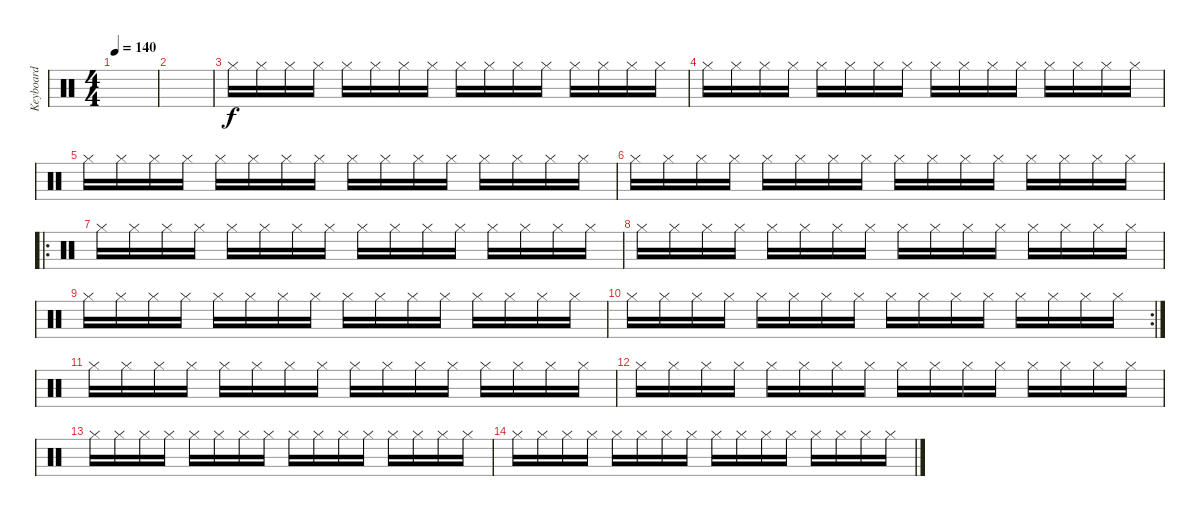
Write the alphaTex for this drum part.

\track ("Keyboard" "Keyboard") {instrument percussion}
\staff {score}
\articulation defaults
\ts (4 4)
\tempo 140
\clef neutral
\ks c
|
|
"Hi-Hat (closed)".16 "Hi-Hat (closed)".16 "Hi-Hat (closed)".16 "Hi-Hat (closed)".16 "Hi-Hat (closed)".16 "Hi-Hat (closed)".16 "Hi-Hat (closed)".16 "Hi-Hat (closed)".16 "Hi-Hat (closed)".16 "Hi-Hat (closed)".16 "Hi-Hat (closed)".16 "Hi-Hat (closed)".16 "Hi-Hat (closed)".16 "Hi-Hat (closed)".16 "Hi-Hat (closed)".16 "Hi-Hat (closed)".16 |
"Hi-Hat (closed)".16 "Hi-Hat (closed)".16 "Hi-Hat (closed)".16 "Hi-Hat (closed)".16 "Hi-Hat (closed)".16 "Hi-Hat (closed)".16 "Hi-Hat (closed)".16 "Hi-Hat (closed)".16 "Hi-Hat (closed)".16 "Hi-Hat (closed)".16 "Hi-Hat (closed)".16 "Hi-Hat (closed)".16 "Hi-Hat (closed)".16 "Hi-Hat (closed)".16 "Hi-Hat (closed)".16 "Hi-Hat (closed)".16 |
"Hi-Hat (closed)".16 "Hi-Hat (closed)".16 "Hi-Hat (closed)".16 "Hi-Hat (closed)".16 "Hi-Hat (closed)".16 "Hi-Hat (closed)".16 "Hi-Hat (closed)".16 "Hi-Hat (closed)".16 "Hi-Hat (closed)".16 "Hi-Hat (closed)".16 "Hi-Hat (closed)".16 "Hi-Hat (closed)".16 "Hi-Hat (closed)".16 "Hi-Hat (closed)".16 "Hi-Hat (closed)".16 "Hi-Hat (closed)".16 |
"Hi-Hat (closed)".16 "Hi-Hat (closed)".16 "Hi-Hat (closed)".16 "Hi-Hat (closed)".16 "Hi-Hat (closed)".16 "Hi-Hat (closed)".16 "Hi-Hat (closed)".16 "Hi-Hat (closed)".16 "Hi-Hat (closed)".16 "Hi-Hat (closed)".16 "Hi-Hat (closed)".16 "Hi-Hat (closed)".16 "Hi-Hat (closed)".16 "Hi-Hat (closed)".16 "Hi-Hat (closed)".16 "Hi-Hat (closed)".16 |
\ro "Hi-Hat (closed)".16 "Hi-Hat (closed)".16 "Hi-Hat (closed)".16 "Hi-Hat (closed)".16 "Hi-Hat (closed)".16 "Hi-Hat (closed)".16 "Hi-Hat (closed)".16 "Hi-Hat (closed)".16 "Hi-Hat (closed)".16 "Hi-Hat (closed)".16 "Hi-Hat (closed)".16 "Hi-Hat (closed)".16 "Hi-Hat (closed)".16 "Hi-Hat (closed)".16 "Hi-Hat (closed)".16 "Hi-Hat (closed)".16
|
"Hi-Hat (closed)".16 "Hi-Hat (closed)".16 "Hi-Hat (closed)".16 "Hi-Hat (closed)".16 "Hi-Hat (closed)".16 "Hi-Hat (closed)".16 "Hi-Hat (closed)".16 "Hi-Hat (closed)".16 "Hi-Hat (closed)".16 "Hi-Hat (closed)".16 "Hi-Hat (closed)".16 "Hi-Hat (closed)".16 "Hi-Hat (closed)".16 "Hi-Hat (closed)".16 "Hi-Hat (closed)".16 "Hi-Hat (closed)".16 |
"Hi-Hat (closed)".16 "Hi-Hat (closed)".16 "Hi-Hat (closed)".16 "Hi-Hat (closed)".16 "Hi-Hat (closed)".16 "Hi-Hat (closed)".16 "Hi-Hat (closed)".16 "Hi-Hat (closed)".16 "Hi-Hat (closed)".16 "Hi-Hat (closed)".16 "Hi-Hat (closed)".16 "Hi-Hat (closed)".16 "Hi-Hat (closed)".16 "Hi-Hat (closed)".16 "Hi-Hat (closed)".16 "Hi-Hat (closed)".16 |
\rc 2 "Hi-Hat (closed)".16 "Hi-Hat (closed)".16 "Hi-Hat (closed)".16 "Hi-Hat (closed)".16 "Hi-Hat (closed)".16 "Hi-Hat (closed)".16 "Hi-Hat (closed)".16 "Hi-Hat (closed)".16 "Hi-Hat (closed)".16 "Hi-Hat (closed)".16 "Hi-Hat (closed)".16 "Hi-Hat (closed)".16 "Hi-Hat (closed)".16 "Hi-Hat (closed)".16 "Hi-Hat (closed)".16 "Hi-Hat (closed)".16
|
"Hi-Hat (closed)".16 "Hi-Hat (closed)".16 "Hi-Hat (closed)".16 "Hi-Hat (closed)".16 "Hi-Hat (closed)".16 "Hi-Hat (closed)".16 "Hi-Hat (closed)".16 "Hi-Hat (closed)".16 "Hi-Hat (closed)".16 "Hi-Hat (closed)".16 "Hi-Hat (closed)".16 "Hi-Hat (closed)".16 "Hi-Hat (closed)".16 "Hi-Hat (closed)".16 "Hi-Hat (closed)".16 "Hi-Hat (closed)".16 |
"Hi-Hat (closed)".16 "Hi-Hat (closed)".16 "Hi-Hat (closed)".16 "Hi-Hat (closed)".16 "Hi-Hat (closed)".16 "Hi-Hat (closed)".16 "Hi-Hat (closed)".16 "Hi-Hat (closed)".16 "Hi-Hat (closed)".16 "Hi-Hat (closed)".16 "Hi-Hat (closed)".16 "Hi-Hat (closed)".16 "Hi-Hat (closed)".16 "Hi-Hat (closed)".16 "Hi-Hat (closed)".16 "Hi-Hat (closed)".16 |
"Hi-Hat (closed)".16 "Hi-Hat (closed)".16 "Hi-Hat (closed)".16 "Hi-Hat (closed)".16 "Hi-Hat (closed)".16 "Hi-Hat (closed)".16 "Hi-Hat (closed)".16 "Hi-Hat (closed)".16 "Hi-Hat (closed)".16 "Hi-Hat (closed)".16 "Hi-Hat (closed)".16 "Hi-Hat (closed)".16 "Hi-Hat (closed)".16 "Hi-Hat (closed)".16 "Hi-Hat (closed)".16 "Hi-Hat (closed)".16 |
"Hi-Hat (closed)".16 "Hi-Hat (closed)".16 "Hi-Hat (closed)".16 "Hi-Hat (closed)".16 "Hi-Hat (closed)".16 "Hi-Hat (closed)".16 "Hi-Hat (closed)".16 "Hi-Hat (closed)".16 "Hi-Hat (closed)".16 "Hi-Hat (closed)".16 "Hi-Hat (closed)".16 "Hi-Hat (closed)".16 "Hi-Hat (closed)".16 "Hi-Hat (closed)".16 "Hi-Hat (closed)".16 "Hi-Hat (closed)".16
